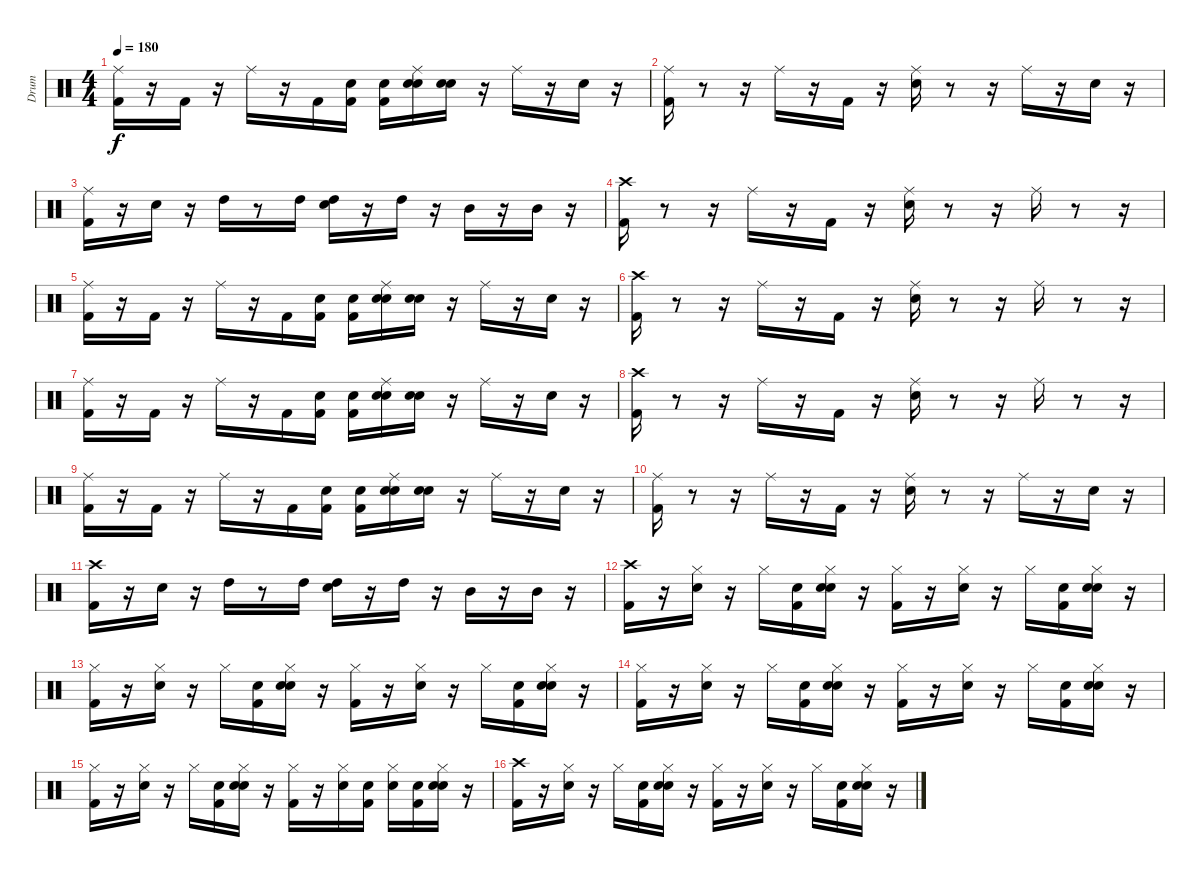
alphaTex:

\track ("Drum" "Drum") {instrument percussion}
\staff {score}
\articulation defaults
\ts (4 4)
\tempo 180
\clef neutral
\ks c
("Kick (hit) 2" "Ride (middle)").16{dy f} r.16 "Kick (hit) 2".16 r.16 "Ride (middle)".16 r.16 "Kick (hit) 2".16 ("Snare (hit)" "Kick (hit) 2").16 ("Snare (hit)" "Kick (hit) 2").16 ("Snare (hit)" "Ride (middle)" "Snare (hit) 2").16 ("Snare (hit)" "Snare (hit) 2").16 r.16 "Ride (middle)".16 r.16 "Snare (hit) 2".16 r.16 |
("Ride (middle)" "Kick (hit) 2").16 r.8 r.16 "Ride (middle)".16 r.16 "Kick (hit) 2".16 r.16 ("Ride (middle)" "Snare (hit) 2").16 r.8 r.16 "Ride (middle)".16 r.16 "Snare (hit) 2".16 r.16 |
("Ride (middle)" "Kick (hit) 2").16 r.16 "Snare (hit) 2".16 r.16 "High Tom (hit)".16 r.8 "High Tom (hit)".16 ("Snare (hit)" "High Tom (hit)").16 r.16 "High Tom (hit)".16 r.16 "Mid Tom (hit)".16 r.16 "Mid Tom (hit)".16 r.16 |
("Crash high (hit)" "Kick (hit) 2").16 r.8 r.16 "Ride (middle)".16 r.16 "Kick (hit) 2".16 r.16 ("Snare (hit) 2" "Ride (middle)").16 r.8 r.16 "Ride (middle)".16 r.8 r.16 |
("Kick (hit) 2" "Ride (middle)").16 r.16 "Kick (hit) 2".16 r.16 "Ride (middle)".16 r.16 "Kick (hit) 2".16 ("Snare (hit)" "Kick (hit) 2").16 ("Snare (hit)" "Kick (hit) 2").16 ("Snare (hit)" "Ride (middle)" "Snare (hit) 2").16 ("Snare (hit)" "Snare (hit) 2").16 r.16 "Ride (middle)".16 r.16 "Snare (hit) 2".16 r.16 |
("Crash high (hit)" "Kick (hit) 2").16 r.8 r.16 "Ride (middle)".16 r.16 "Kick (hit) 2".16 r.16 ("Snare (hit) 2" "Ride (middle)").16 r.8 r.16 "Ride (middle)".16 r.8 r.16 |
("Kick (hit) 2" "Ride (middle)").16 r.16 "Kick (hit) 2".16 r.16 "Ride (middle)".16 r.16 "Kick (hit) 2".16 ("Snare (hit)" "Kick (hit) 2").16 ("Snare (hit)" "Kick (hit) 2").16 ("Snare (hit)" "Ride (middle)" "Snare (hit) 2").16 ("Snare (hit)" "Snare (hit) 2").16 r.16 "Ride (middle)".16 r.16 "Snare (hit) 2".16 r.16 |
("Crash high (hit)" "Kick (hit) 2").16 r.8 r.16 "Ride (middle)".16 r.16 "Kick (hit) 2".16 r.16 ("Snare (hit) 2" "Ride (middle)").16 r.8 r.16 "Ride (middle)".16 r.8 r.16 |
("Kick (hit) 2" "Ride (middle)").16 r.16 "Kick (hit) 2".16 r.16 "Ride (middle)".16 r.16 "Kick (hit) 2".16 ("Snare (hit)" "Kick (hit) 2").16 ("Snare (hit)" "Kick (hit) 2").16 ("Snare (hit)" "Ride (middle)" "Snare (hit) 2").16 ("Snare (hit)" "Snare (hit) 2").16 r.16 "Ride (middle)".16 r.16 "Snare (hit) 2".16 r.16 |
("Ride (middle)" "Kick (hit) 2").16 r.8 r.16 "Ride (middle)".16 r.16 "Kick (hit) 2".16 r.16 ("Ride (middle)" "Snare (hit) 2").16 r.8 r.16 "Ride (middle)".16 r.16 "Snare (hit) 2".16 r.16 |
("Kick (hit) 2" "Crash high (hit)").16 r.16 "Snare (hit) 2".16 r.16 "High Tom (hit)".16 r.8 "High Tom (hit)".16 ("Snare (hit)" "High Tom (hit)").16 r.16 "High Tom (hit)".16 r.16 "Mid Tom (hit)".16 r.16 "Mid Tom (hit)".16 r.16 |
("Crash high (hit)" "Kick (hit) 2").16 r.16 ("Snare (hit) 2" "Hi-Hat (closed)").16 r.16 "Hi-Hat (closed)".16 ("Snare (hit)" "Kick (hit) 2").16 ("Snare (hit)" "Snare (hit) 2" "Hi-Hat (closed)").16 r.16 ("Kick (hit) 2" "Hi-Hat (closed)").16 r.16 ("Snare (hit) 2" "Hi-Hat (closed)").16 r.16 "Hi-Hat (closed)".16 ("Snare (hit)" "Kick (hit) 2").16 ("Snare (hit)" "Snare (hit) 2" "Hi-Hat (closed)").16 r.16 |
("Kick (hit) 2" "Hi-Hat (closed)").16 r.16 ("Snare (hit) 2" "Hi-Hat (closed)").16 r.16 "Hi-Hat (closed)".16 ("Snare (hit)" "Kick (hit) 2").16 ("Snare (hit)" "Snare (hit) 2" "Hi-Hat (closed)").16 r.16 ("Kick (hit) 2" "Hi-Hat (closed)").16 r.16 ("Snare (hit) 2" "Hi-Hat (closed)").16 r.16 "Hi-Hat (closed)".16 ("Snare (hit)" "Kick (hit) 2").16 ("Snare (hit)" "Snare (hit) 2" "Hi-Hat (closed)").16 r.16 |
("Kick (hit) 2" "Hi-Hat (closed)").16 r.16 ("Snare (hit) 2" "Hi-Hat (closed)").16 r.16 "Hi-Hat (closed)".16 ("Snare (hit)" "Kick (hit) 2").16 ("Snare (hit)" "Snare (hit) 2" "Hi-Hat (closed)").16 r.16 ("Kick (hit) 2" "Hi-Hat (closed)").16 r.16 ("Snare (hit) 2" "Hi-Hat (closed)").16 r.16 "Hi-Hat (closed)".16 ("Snare (hit)" "Kick (hit) 2").16 ("Snare (hit)" "Snare (hit) 2" "Hi-Hat (closed)").16 r.16 |
("Kick (hit) 2" "Hi-Hat (closed)").16 r.16 ("Snare (hit) 2" "Hi-Hat (closed)").16 r.16 "Hi-Hat (closed)".16 ("Snare (hit)" "Kick (hit) 2").16 ("Snare (hit)" "Snare (hit) 2" "Hi-Hat (closed)").16 r.16 ("Kick (hit) 2" "Hi-Hat (closed)").16 r.16 ("Snare (hit) 2" "Hi-Hat (closed)").16 ("Snare (hit)" "Kick (hit) 2").16 ("Snare (hit)" "Hi-Hat (closed)").16 ("Snare (hit)" "Kick (hit) 2").16 ("Snare (hit)" "Snare (hit) 2" "Hi-Hat (closed)").16 r.16 |
("Kick (hit) 2" "Crash high (hit)").16 r.16 ("Snare (hit) 2" "Hi-Hat (closed)").16 r.16 "Hi-Hat (closed)".16 ("Snare (hit)" "Kick (hit) 2").16 ("Snare (hit)" "Snare (hit) 2" "Hi-Hat (closed)").16 r.16 ("Kick (hit) 2" "Hi-Hat (closed)").16 r.16 ("Snare (hit) 2" "Hi-Hat (closed)").16 r.16 "Hi-Hat (closed)".16 ("Snare (hit)" "Kick (hit) 2").16 ("Snare (hit)" "Snare (hit) 2" "Hi-Hat (closed)").16 r.16
